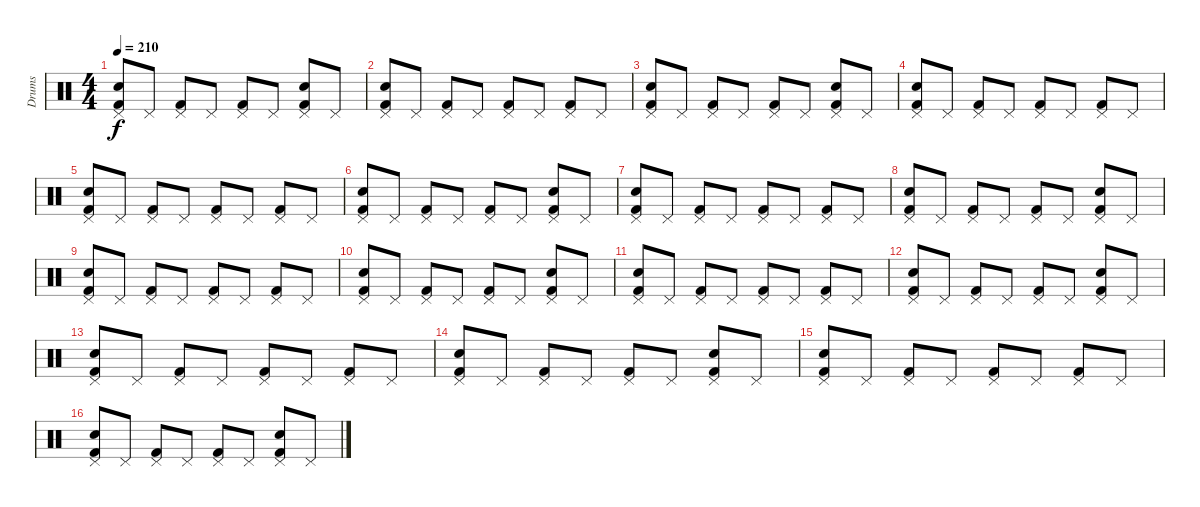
\track ("Drums" "Drums") {instrument percussion}
\staff {score}
\articulation defaults
\ts (4 4)
\tempo 210
\clef neutral
\ks c
("Kick (hit) 2" "Pedal Hi-Hat (hit)" "Snare (hit) 2").8{dy f} "Pedal Hi-Hat (hit)".8 ("Kick (hit) 2" "Pedal Hi-Hat (hit)").8 "Pedal Hi-Hat (hit)".8 ("Kick (hit) 2" "Pedal Hi-Hat (hit)").8 "Pedal Hi-Hat (hit)".8 ("Kick (hit) 2" "Pedal Hi-Hat (hit)" "Snare (hit) 2").8 "Pedal Hi-Hat (hit)".8 |
("Kick (hit) 2" "Pedal Hi-Hat (hit)" "Snare (hit) 2").8 "Pedal Hi-Hat (hit)".8 ("Kick (hit) 2" "Pedal Hi-Hat (hit)").8 "Pedal Hi-Hat (hit)".8 ("Kick (hit) 2" "Pedal Hi-Hat (hit)").8 "Pedal Hi-Hat (hit)".8 ("Kick (hit) 2" "Pedal Hi-Hat (hit)").8 "Pedal Hi-Hat (hit)".8 |
("Kick (hit) 2" "Pedal Hi-Hat (hit)" "Snare (hit) 2").8 "Pedal Hi-Hat (hit)".8 ("Kick (hit) 2" "Pedal Hi-Hat (hit)").8 "Pedal Hi-Hat (hit)".8 ("Kick (hit) 2" "Pedal Hi-Hat (hit)").8 "Pedal Hi-Hat (hit)".8 ("Kick (hit) 2" "Pedal Hi-Hat (hit)" "Snare (hit) 2").8 "Pedal Hi-Hat (hit)".8 |
("Kick (hit) 2" "Pedal Hi-Hat (hit)" "Snare (hit) 2").8 "Pedal Hi-Hat (hit)".8 ("Kick (hit) 2" "Pedal Hi-Hat (hit)").8 "Pedal Hi-Hat (hit)".8 ("Kick (hit) 2" "Pedal Hi-Hat (hit)").8 "Pedal Hi-Hat (hit)".8 ("Kick (hit) 2" "Pedal Hi-Hat (hit)").8 "Pedal Hi-Hat (hit)".8 |
("Kick (hit) 2" "Pedal Hi-Hat (hit)" "Snare (hit) 2").8 "Pedal Hi-Hat (hit)".8 ("Kick (hit) 2" "Pedal Hi-Hat (hit)").8 "Pedal Hi-Hat (hit)".8 ("Kick (hit) 2" "Pedal Hi-Hat (hit)").8 "Pedal Hi-Hat (hit)".8 ("Kick (hit) 2" "Pedal Hi-Hat (hit)").8 "Pedal Hi-Hat (hit)".8 |
("Kick (hit) 2" "Pedal Hi-Hat (hit)" "Snare (hit) 2").8 "Pedal Hi-Hat (hit)".8 ("Kick (hit) 2" "Pedal Hi-Hat (hit)").8 "Pedal Hi-Hat (hit)".8 ("Kick (hit) 2" "Pedal Hi-Hat (hit)").8 "Pedal Hi-Hat (hit)".8 ("Kick (hit) 2" "Pedal Hi-Hat (hit)" "Snare (hit) 2").8 "Pedal Hi-Hat (hit)".8 |
("Kick (hit) 2" "Pedal Hi-Hat (hit)" "Snare (hit) 2").8 "Pedal Hi-Hat (hit)".8 ("Kick (hit) 2" "Pedal Hi-Hat (hit)").8 "Pedal Hi-Hat (hit)".8 ("Kick (hit) 2" "Pedal Hi-Hat (hit)").8 "Pedal Hi-Hat (hit)".8 ("Kick (hit) 2" "Pedal Hi-Hat (hit)").8 "Pedal Hi-Hat (hit)".8 |
("Kick (hit) 2" "Pedal Hi-Hat (hit)" "Snare (hit) 2").8 "Pedal Hi-Hat (hit)".8 ("Kick (hit) 2" "Pedal Hi-Hat (hit)").8 "Pedal Hi-Hat (hit)".8 ("Kick (hit) 2" "Pedal Hi-Hat (hit)").8 "Pedal Hi-Hat (hit)".8 ("Kick (hit) 2" "Pedal Hi-Hat (hit)" "Snare (hit) 2").8 "Pedal Hi-Hat (hit)".8 |
("Kick (hit) 2" "Pedal Hi-Hat (hit)" "Snare (hit) 2").8 "Pedal Hi-Hat (hit)".8 ("Kick (hit) 2" "Pedal Hi-Hat (hit)").8 "Pedal Hi-Hat (hit)".8 ("Kick (hit) 2" "Pedal Hi-Hat (hit)").8 "Pedal Hi-Hat (hit)".8 ("Kick (hit) 2" "Pedal Hi-Hat (hit)").8 "Pedal Hi-Hat (hit)".8 |
("Kick (hit) 2" "Pedal Hi-Hat (hit)" "Snare (hit) 2").8 "Pedal Hi-Hat (hit)".8 ("Kick (hit) 2" "Pedal Hi-Hat (hit)").8 "Pedal Hi-Hat (hit)".8 ("Kick (hit) 2" "Pedal Hi-Hat (hit)").8 "Pedal Hi-Hat (hit)".8 ("Kick (hit) 2" "Pedal Hi-Hat (hit)" "Snare (hit) 2").8 "Pedal Hi-Hat (hit)".8 |
("Kick (hit) 2" "Pedal Hi-Hat (hit)" "Snare (hit) 2").8 "Pedal Hi-Hat (hit)".8 ("Kick (hit) 2" "Pedal Hi-Hat (hit)").8 "Pedal Hi-Hat (hit)".8 ("Kick (hit) 2" "Pedal Hi-Hat (hit)").8 "Pedal Hi-Hat (hit)".8 ("Kick (hit) 2" "Pedal Hi-Hat (hit)").8 "Pedal Hi-Hat (hit)".8 |
("Kick (hit) 2" "Pedal Hi-Hat (hit)" "Snare (hit) 2").8 "Pedal Hi-Hat (hit)".8 ("Kick (hit) 2" "Pedal Hi-Hat (hit)").8 "Pedal Hi-Hat (hit)".8 ("Kick (hit) 2" "Pedal Hi-Hat (hit)").8 "Pedal Hi-Hat (hit)".8 ("Kick (hit) 2" "Pedal Hi-Hat (hit)" "Snare (hit) 2").8 "Pedal Hi-Hat (hit)".8 |
("Kick (hit) 2" "Pedal Hi-Hat (hit)" "Snare (hit) 2").8 "Pedal Hi-Hat (hit)".8 ("Kick (hit) 2" "Pedal Hi-Hat (hit)").8 "Pedal Hi-Hat (hit)".8 ("Kick (hit) 2" "Pedal Hi-Hat (hit)").8 "Pedal Hi-Hat (hit)".8 ("Kick (hit) 2" "Pedal Hi-Hat (hit)").8 "Pedal Hi-Hat (hit)".8 |
("Kick (hit) 2" "Pedal Hi-Hat (hit)" "Snare (hit) 2").8 "Pedal Hi-Hat (hit)".8 ("Kick (hit) 2" "Pedal Hi-Hat (hit)").8 "Pedal Hi-Hat (hit)".8 ("Kick (hit) 2" "Pedal Hi-Hat (hit)").8 "Pedal Hi-Hat (hit)".8 ("Kick (hit) 2" "Pedal Hi-Hat (hit)" "Snare (hit) 2").8 "Pedal Hi-Hat (hit)".8 |
("Kick (hit) 2" "Pedal Hi-Hat (hit)" "Snare (hit) 2").8 "Pedal Hi-Hat (hit)".8 ("Kick (hit) 2" "Pedal Hi-Hat (hit)").8 "Pedal Hi-Hat (hit)".8 ("Kick (hit) 2" "Pedal Hi-Hat (hit)").8 "Pedal Hi-Hat (hit)".8 ("Kick (hit) 2" "Pedal Hi-Hat (hit)").8 "Pedal Hi-Hat (hit)".8 |
("Kick (hit) 2" "Pedal Hi-Hat (hit)" "Snare (hit) 2").8 "Pedal Hi-Hat (hit)".8 ("Kick (hit) 2" "Pedal Hi-Hat (hit)").8 "Pedal Hi-Hat (hit)".8 ("Kick (hit) 2" "Pedal Hi-Hat (hit)").8 "Pedal Hi-Hat (hit)".8 ("Kick (hit) 2" "Pedal Hi-Hat (hit)" "Snare (hit) 2").8 "Pedal Hi-Hat (hit)".8
